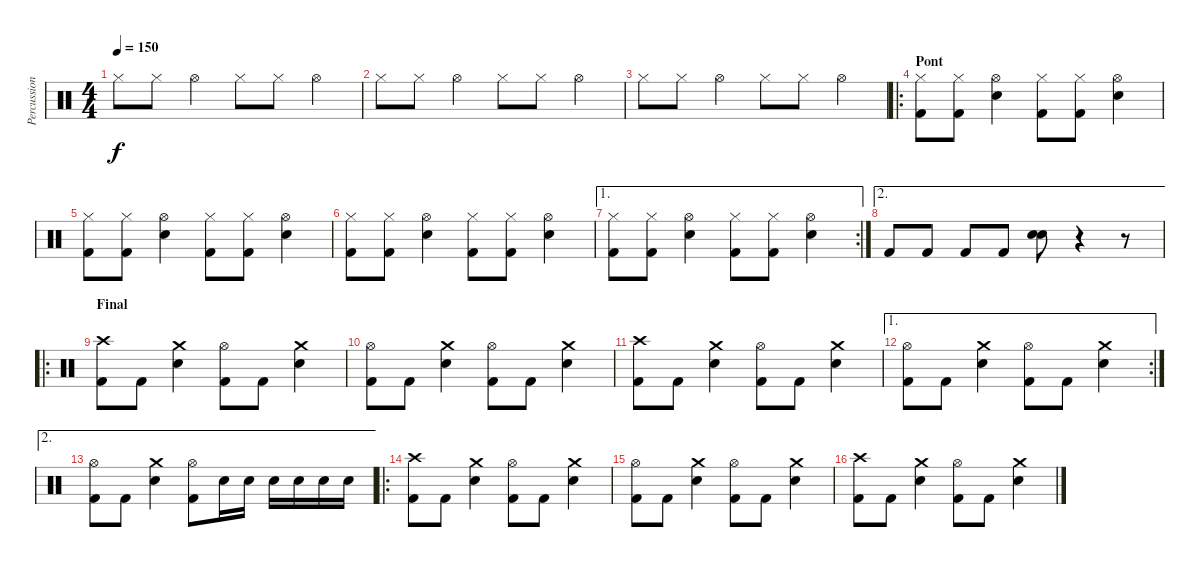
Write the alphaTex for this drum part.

\track ("Percussions" "Percussion") {instrument percussion}
\staff {score}
\articulation defaults
\ts (4 4)
\tempo 150
\clef neutral
\ks c "Hi-Hat (closed)".8{dy f} "Hi-Hat (closed)".8 "Hi-Hat (open)".4 "Hi-Hat (closed)".8 "Hi-Hat (closed)".8 "Hi-Hat (open)".4
|
"Hi-Hat (closed)".8 "Hi-Hat (closed)".8 "Hi-Hat (open)".4 "Hi-Hat (closed)".8 "Hi-Hat (closed)".8 "Hi-Hat (open)".4 |
"Hi-Hat (closed)".8 "Hi-Hat (closed)".8 "Hi-Hat (open)".4 "Hi-Hat (closed)".8 "Hi-Hat (closed)".8 "Hi-Hat (open)".4 |
\ro
\section ("" "Pont")
("Hi-Hat (closed)" "Kick (hit) 2").8 ("Hi-Hat (closed)" "Kick (hit) 2").8 ("Hi-Hat (open)" "Electric Snare (hit)").4 ("Hi-Hat (closed)" "Kick (hit) 2").8 ("Hi-Hat (closed)" "Kick (hit) 2").8 ("Hi-Hat (open)" "Electric Snare (hit)").4 |
("Hi-Hat (closed)" "Kick (hit) 2").8 ("Hi-Hat (closed)" "Kick (hit) 2").8 ("Hi-Hat (open)" "Electric Snare (hit)").4 ("Hi-Hat (closed)" "Kick (hit) 2").8 ("Hi-Hat (closed)" "Kick (hit) 2").8 ("Hi-Hat (open)" "Electric Snare (hit)").4 |
("Hi-Hat (closed)" "Kick (hit) 2").8 ("Hi-Hat (closed)" "Kick (hit) 2").8 ("Hi-Hat (open)" "Electric Snare (hit)").4 ("Hi-Hat (closed)" "Kick (hit) 2").8 ("Hi-Hat (closed)" "Kick (hit) 2").8 ("Hi-Hat (open)" "Electric Snare (hit)").4 |
\ae 1
\rc 2
("Hi-Hat (closed)" "Kick (hit) 2").8 ("Hi-Hat (closed)" "Kick (hit) 2").8 ("Hi-Hat (open)" "Electric Snare (hit)").4 ("Hi-Hat (closed)" "Kick (hit) 2").8 ("Hi-Hat (closed)" "Kick (hit) 2").8 ("Hi-Hat (open)" "Electric Snare (hit)").4 |
\ae 2 "Kick (hit) 2".8 "Kick (hit) 2".8 "Kick (hit) 2".8 "Kick (hit) 2".8
("Electric Snare (hit)" "Electric Snare (hit)").8 r.4 r.8 |
\ro
\section ("" "Final")
("Crash high (hit)" "Kick (hit) 2").8 "Kick (hit) 2".8 ("Crash medium (hit)" "Electric Snare (hit)").4 ("Hi-Hat (open)" "Kick (hit) 2").8 "Kick (hit) 2".8 ("Crash medium (hit)" "Electric Snare (hit)").4 |
("Hi-Hat (open)" "Kick (hit) 2").8 "Kick (hit) 2".8 ("Crash medium (hit)" "Electric Snare (hit)").4 ("Hi-Hat (open)" "Kick (hit) 2").8 "Kick (hit) 2".8 ("Crash medium (hit)" "Electric Snare (hit)").4 |
("Crash high (hit)" "Kick (hit) 2").8 "Kick (hit) 2".8 ("Crash medium (hit)" "Electric Snare (hit)").4 ("Hi-Hat (open)" "Kick (hit) 2").8 "Kick (hit) 2".8 ("Crash medium (hit)" "Electric Snare (hit)").4 |
\ae 1
\rc 2
("Hi-Hat (open)" "Kick (hit) 2").8 "Kick (hit) 2".8 ("Crash medium (hit)" "Electric Snare (hit)").4 ("Hi-Hat (open)" "Kick (hit) 2").8 "Kick (hit) 2".8 ("Crash medium (hit)" "Electric Snare (hit)").4 |
\ae 2
("Hi-Hat (open)" "Kick (hit) 2").8 "Kick (hit) 2".8 ("Crash medium (hit)" "Electric Snare (hit)").4 ("Hi-Hat (open)" "Kick (hit) 2").8 "Electric Snare (hit)".16 "Electric Snare (hit)".16 "Electric Snare (hit)".16 "Electric Snare (hit)".16 "Electric Snare (hit)".16 "Electric Snare (hit)".16 |
\ro
("Crash high (hit)" "Kick (hit) 2").8 "Kick (hit) 2".8 ("Crash medium (hit)" "Electric Snare (hit)").4 ("Hi-Hat (open)" "Kick (hit) 2").8 "Kick (hit) 2".8 ("Crash medium (hit)" "Electric Snare (hit)").4 |
("Hi-Hat (open)" "Kick (hit) 2").8 "Kick (hit) 2".8 ("Crash medium (hit)" "Electric Snare (hit)").4 ("Hi-Hat (open)" "Kick (hit) 2").8 "Kick (hit) 2".8 ("Crash medium (hit)" "Electric Snare (hit)").4 |
("Crash high (hit)" "Kick (hit) 2").8 "Kick (hit) 2".8 ("Crash medium (hit)" "Electric Snare (hit)").4 ("Hi-Hat (open)" "Kick (hit) 2").8 "Kick (hit) 2".8 ("Crash medium (hit)" "Electric Snare (hit)").4
